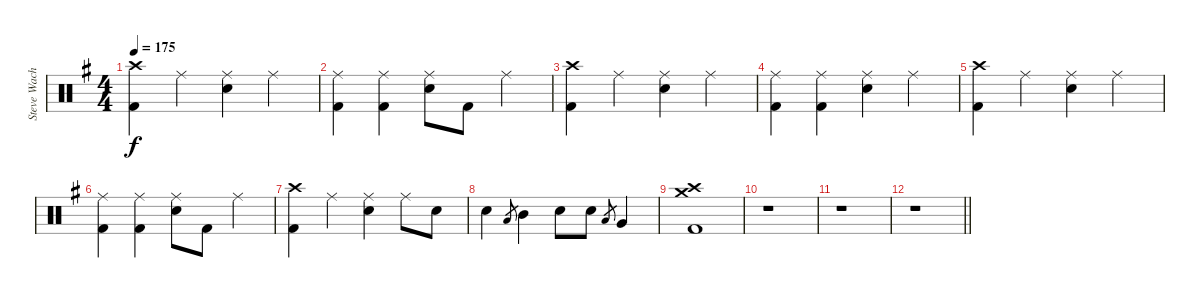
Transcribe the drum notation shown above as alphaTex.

\track ("Steve Wacholz" "Steve Wach") {instrument percussion}
\staff {score}
\articulation defaults
\ts (4 4)
\tempo 175
\clef neutral
\ks eminor
("Crash high (hit)" "Kick (hit) 2").4{dy f} "Ride (middle)".4 ("Ride (middle)" "Electric Snare (hit)").4 "Ride (middle)".4 |
("Ride (middle)" "Kick (hit) 2").4 ("Ride (middle)" "Kick (hit) 2").4 ("Ride (middle)" "Electric Snare (hit)").8 "Kick (hit) 2".8 "Ride (middle)".4 |
("Crash high (hit)" "Kick (hit) 2").4 "Ride (middle)".4 ("Ride (middle)" "Electric Snare (hit)").4 "Ride (middle)".4 |
("Ride (middle)" "Kick (hit) 2").4 ("Ride (middle)" "Kick (hit) 2").4 ("Ride (middle)" "Electric Snare (hit)").4 "Ride (middle)".4 |
("Crash high (hit)" "Kick (hit) 2").4 "Ride (middle)".4 ("Ride (middle)" "Electric Snare (hit)").4 "Ride (middle)".4 |
("Ride (middle)" "Kick (hit) 2").4 ("Ride (middle)" "Kick (hit) 2").4 ("Ride (middle)" "Electric Snare (hit)").8 "Kick (hit) 2".8 "Ride (middle)".4 |
("Crash high (hit)" "Kick (hit) 2").4 "Ride (middle)".4 ("Ride (middle)" "Electric Snare (hit)").4 "Ride (middle)".8 "Electric Snare (hit)".8 |
"Electric Snare (hit)".4 "Low Tom (hit)".8{gr} "Mid Tom (hit)".4 "Electric Snare (hit)".8 "Electric Snare (hit)".8 "Low Tom (hit)".8{gr} "Very Low Tom (hit)".4 |
("Crash high (hit)" "Crash medium (hit)" "Kick (hit) 2").1 |
r.1 |
r.1 |
\barLineRight lightlight
r.1
